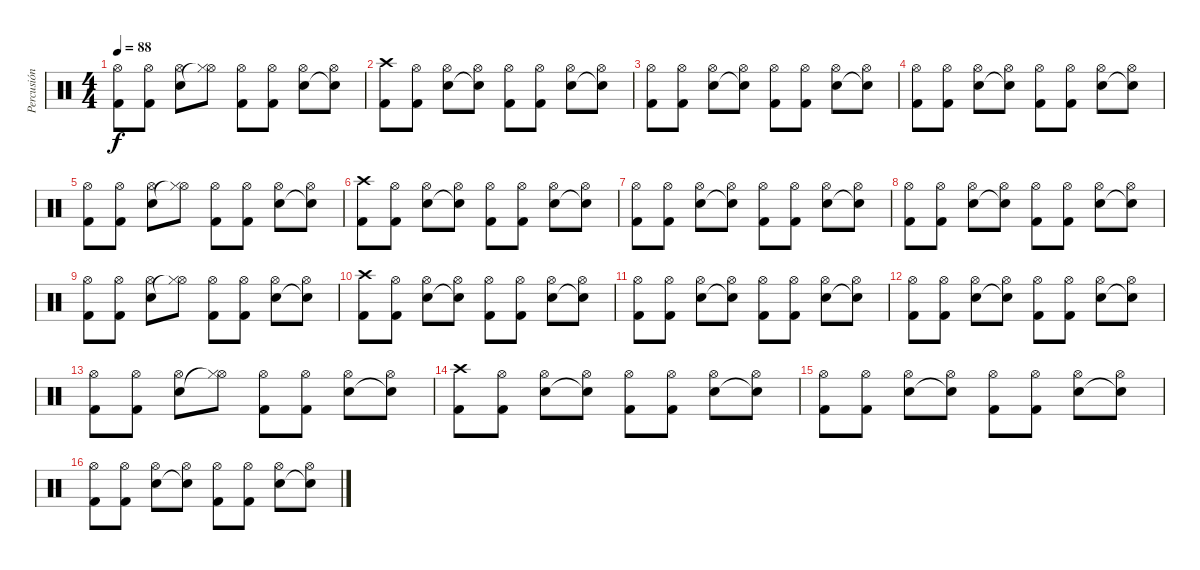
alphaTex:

\track ("Percusión" "Percusión") {instrument percussion}
\staff {score}
\articulation defaults
\ts (4 4)
\tempo 88
\clef neutral
\ks c
("Hi-Hat (open)" "Kick (hit) 2").8{dy f} ("Hi-Hat (open)" "Kick (hit) 2").8 ("Hi-Hat (open)" "Snare (hit) 2").8 ("Hi-Hat (open)" "Hi-Hat (closed)"{t}).8 ("Hi-Hat (open)" "Kick (hit) 2").8 ("Hi-Hat (open)" "Kick (hit) 2").8 ("Hi-Hat (open)" "Snare (hit) 2").8 ("Hi-Hat (open)" "Snare (hit)"{t}).8 |
("Crash high (hit)" "Kick (hit) 2").8 ("Hi-Hat (open)" "Kick (hit) 2").8 ("Hi-Hat (open)" "Snare (hit) 2").8 ("Hi-Hat (open)" "Snare (hit)"{t}).8 ("Hi-Hat (open)" "Kick (hit) 2").8 ("Hi-Hat (open)" "Kick (hit) 2").8 ("Hi-Hat (open)" "Snare (hit) 2").8 ("Hi-Hat (open)" "Snare (hit)"{t}).8 |
("Hi-Hat (open)" "Kick (hit) 2").8 ("Hi-Hat (open)" "Kick (hit) 2").8 ("Hi-Hat (open)" "Snare (hit) 2").8 ("Hi-Hat (open)" "Snare (hit)"{t}).8 ("Hi-Hat (open)" "Kick (hit) 2").8 ("Hi-Hat (open)" "Kick (hit) 2").8 ("Hi-Hat (open)" "Snare (hit) 2").8 ("Hi-Hat (open)" "Snare (hit)"{t}).8 |
("Hi-Hat (open)" "Kick (hit) 2").8 ("Hi-Hat (open)" "Kick (hit) 2").8 ("Hi-Hat (open)" "Snare (hit) 2").8 ("Hi-Hat (open)" "Snare (hit)"{t}).8 ("Hi-Hat (open)" "Kick (hit) 2").8 ("Hi-Hat (open)" "Kick (hit) 2").8 ("Hi-Hat (open)" "Snare (hit) 2").8 ("Hi-Hat (open)" "Snare (hit)"{t}).8 |
("Hi-Hat (open)" "Kick (hit) 2").8 ("Hi-Hat (open)" "Kick (hit) 2").8 ("Hi-Hat (open)" "Snare (hit) 2").8 ("Hi-Hat (open)" "Hi-Hat (closed)"{t}).8 ("Hi-Hat (open)" "Kick (hit) 2").8 ("Hi-Hat (open)" "Kick (hit) 2").8 ("Hi-Hat (open)" "Snare (hit) 2").8 ("Hi-Hat (open)" "Snare (hit)"{t}).8 |
("Crash high (hit)" "Kick (hit) 2").8 ("Hi-Hat (open)" "Kick (hit) 2").8 ("Hi-Hat (open)" "Snare (hit) 2").8 ("Hi-Hat (open)" "Snare (hit)"{t}).8 ("Hi-Hat (open)" "Kick (hit) 2").8 ("Hi-Hat (open)" "Kick (hit) 2").8 ("Hi-Hat (open)" "Snare (hit) 2").8 ("Hi-Hat (open)" "Snare (hit)"{t}).8 |
("Hi-Hat (open)" "Kick (hit) 2").8 ("Hi-Hat (open)" "Kick (hit) 2").8 ("Hi-Hat (open)" "Snare (hit) 2").8 ("Hi-Hat (open)" "Snare (hit)"{t}).8 ("Hi-Hat (open)" "Kick (hit) 2").8 ("Hi-Hat (open)" "Kick (hit) 2").8 ("Hi-Hat (open)" "Snare (hit) 2").8 ("Hi-Hat (open)" "Snare (hit)"{t}).8 |
("Hi-Hat (open)" "Kick (hit) 2").8 ("Hi-Hat (open)" "Kick (hit) 2").8 ("Hi-Hat (open)" "Snare (hit) 2").8 ("Hi-Hat (open)" "Snare (hit)"{t}).8 ("Hi-Hat (open)" "Kick (hit) 2").8 ("Hi-Hat (open)" "Kick (hit) 2").8 ("Hi-Hat (open)" "Snare (hit) 2").8 ("Hi-Hat (open)" "Snare (hit)"{t}).8 |
("Hi-Hat (open)" "Kick (hit) 2").8 ("Hi-Hat (open)" "Kick (hit) 2").8 ("Hi-Hat (open)" "Snare (hit) 2").8 ("Hi-Hat (open)" "Hi-Hat (closed)"{t}).8 ("Hi-Hat (open)" "Kick (hit) 2").8 ("Hi-Hat (open)" "Kick (hit) 2").8 ("Hi-Hat (open)" "Snare (hit) 2").8 ("Hi-Hat (open)" "Snare (hit)"{t}).8 |
("Crash high (hit)" "Kick (hit) 2").8 ("Hi-Hat (open)" "Kick (hit) 2").8 ("Hi-Hat (open)" "Snare (hit) 2").8 ("Hi-Hat (open)" "Snare (hit)"{t}).8 ("Hi-Hat (open)" "Kick (hit) 2").8 ("Hi-Hat (open)" "Kick (hit) 2").8 ("Hi-Hat (open)" "Snare (hit) 2").8 ("Hi-Hat (open)" "Snare (hit)"{t}).8 |
("Hi-Hat (open)" "Kick (hit) 2").8 ("Hi-Hat (open)" "Kick (hit) 2").8 ("Hi-Hat (open)" "Snare (hit) 2").8 ("Hi-Hat (open)" "Snare (hit)"{t}).8 ("Hi-Hat (open)" "Kick (hit) 2").8 ("Hi-Hat (open)" "Kick (hit) 2").8 ("Hi-Hat (open)" "Snare (hit) 2").8 ("Hi-Hat (open)" "Snare (hit)"{t}).8 |
("Hi-Hat (open)" "Kick (hit) 2").8 ("Hi-Hat (open)" "Kick (hit) 2").8 ("Hi-Hat (open)" "Snare (hit) 2").8 ("Hi-Hat (open)" "Snare (hit)"{t}).8 ("Hi-Hat (open)" "Kick (hit) 2").8 ("Hi-Hat (open)" "Kick (hit) 2").8 ("Hi-Hat (open)" "Snare (hit) 2").8 ("Hi-Hat (open)" "Snare (hit)"{t}).8 |
("Hi-Hat (open)" "Kick (hit) 2").8 ("Hi-Hat (open)" "Kick (hit) 2").8 ("Hi-Hat (open)" "Snare (hit) 2").8 ("Hi-Hat (open)" "Hi-Hat (closed)"{t}).8 ("Hi-Hat (open)" "Kick (hit) 2").8 ("Hi-Hat (open)" "Kick (hit) 2").8 ("Hi-Hat (open)" "Snare (hit) 2").8 ("Hi-Hat (open)" "Snare (hit)"{t}).8 |
("Crash high (hit)" "Kick (hit) 2").8 ("Hi-Hat (open)" "Kick (hit) 2").8 ("Hi-Hat (open)" "Snare (hit) 2").8 ("Hi-Hat (open)" "Snare (hit)"{t}).8 ("Hi-Hat (open)" "Kick (hit) 2").8 ("Hi-Hat (open)" "Kick (hit) 2").8 ("Hi-Hat (open)" "Snare (hit) 2").8 ("Hi-Hat (open)" "Snare (hit)"{t}).8 |
("Hi-Hat (open)" "Kick (hit) 2").8 ("Hi-Hat (open)" "Kick (hit) 2").8 ("Hi-Hat (open)" "Snare (hit) 2").8 ("Hi-Hat (open)" "Snare (hit)"{t}).8 ("Hi-Hat (open)" "Kick (hit) 2").8 ("Hi-Hat (open)" "Kick (hit) 2").8 ("Hi-Hat (open)" "Snare (hit) 2").8 ("Hi-Hat (open)" "Snare (hit)"{t}).8 |
("Hi-Hat (open)" "Kick (hit) 2").8 ("Hi-Hat (open)" "Kick (hit) 2").8 ("Hi-Hat (open)" "Snare (hit) 2").8 ("Hi-Hat (open)" "Snare (hit)"{t}).8 ("Hi-Hat (open)" "Kick (hit) 2").8 ("Hi-Hat (open)" "Kick (hit) 2").8 ("Hi-Hat (open)" "Snare (hit) 2").8 ("Hi-Hat (open)" "Snare (hit)"{t}).8
